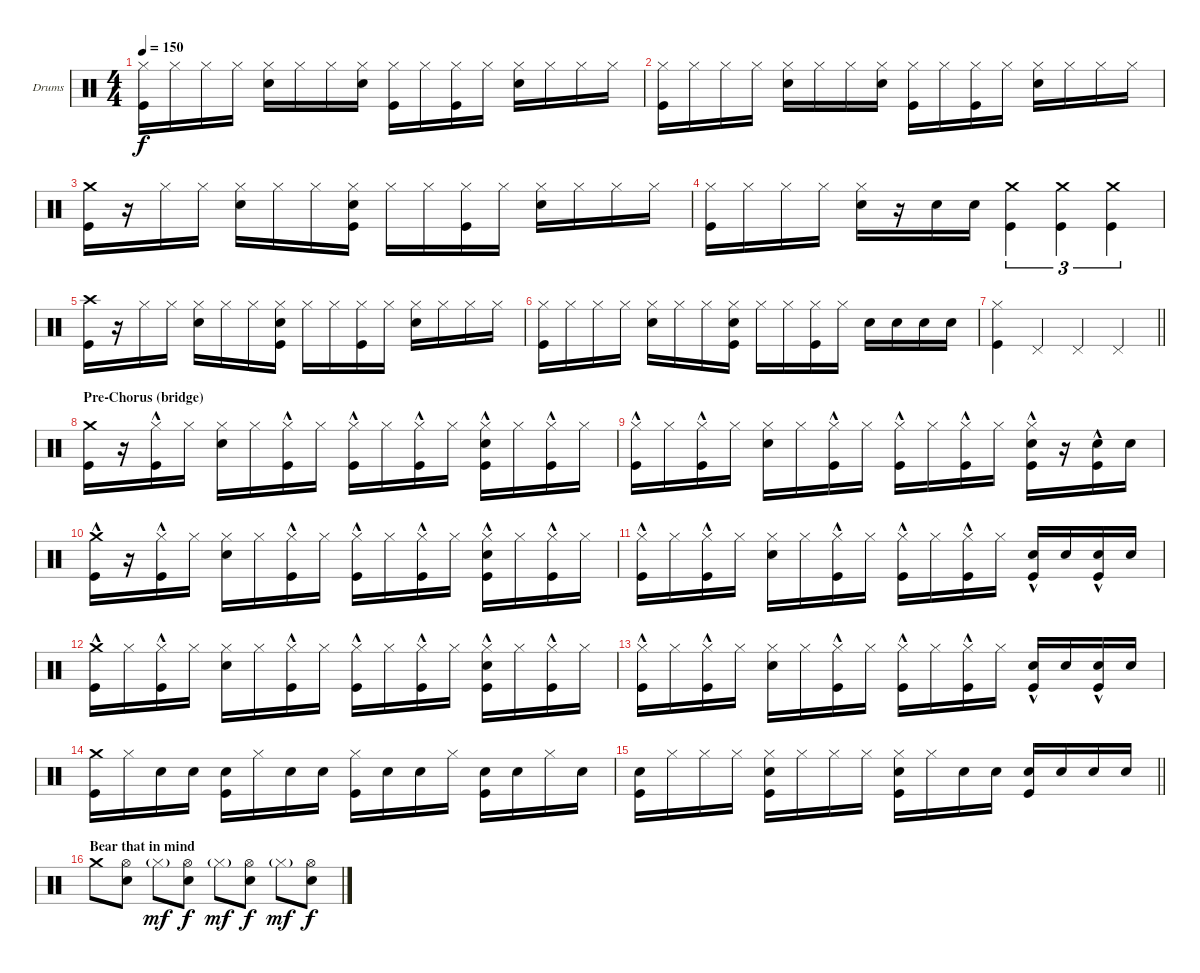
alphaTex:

\bracketExtendMode groupsimilarinstruments
\firstSystemTrackNameOrientation horizontal
\otherSystemsTrackNameOrientation horizontal
\track ("Drumkit" "Drums") {instrument percussion}
\staff {score}
\articulation defaults
\ts (4 4)
\tempo 150
\clef neutral
\ks c
("Hi-Hat (closed)" "Kick (hit)").16{dy f} "Hi-Hat (closed)".16 "Hi-Hat (closed)".16 "Hi-Hat (closed)".16 ("Hi-Hat (closed)" "Snare (hit) 2").16 "Hi-Hat (closed)".16 "Hi-Hat (closed)".16 ("Hi-Hat (closed)" "Snare (hit) 2").16 ("Hi-Hat (closed)" "Kick (hit)").16 "Hi-Hat (closed)".16 ("Hi-Hat (closed)" "Kick (hit)").16 "Hi-Hat (closed)".16 ("Hi-Hat (closed)" "Snare (hit) 2").16 "Hi-Hat (closed)".16 "Hi-Hat (closed)".16 "Hi-Hat (closed)".16 |
("Hi-Hat (closed)" "Kick (hit)").16 "Hi-Hat (closed)".16 "Hi-Hat (closed)".16 "Hi-Hat (closed)".16 ("Hi-Hat (closed)" "Snare (hit) 2").16 "Hi-Hat (closed)".16 "Hi-Hat (closed)".16 ("Hi-Hat (closed)" "Snare (hit) 2").16 ("Hi-Hat (closed)" "Kick (hit)").16 "Hi-Hat (closed)".16 ("Hi-Hat (closed)" "Kick (hit)").16 "Hi-Hat (closed)".16 ("Hi-Hat (closed)" "Snare (hit) 2").16 "Hi-Hat (closed)".16 "Hi-Hat (closed)".16 "Hi-Hat (closed)".16 |
("Crash medium (hit)" "Kick (hit)").16 r.16 "Hi-Hat (closed)".16 "Hi-Hat (closed)".16 ("Hi-Hat (closed)" "Snare (hit) 2").16 "Hi-Hat (closed)".16 "Hi-Hat (closed)".16 ("Hi-Hat (closed)" "Snare (hit) 2" "Kick (hit)").16 "Hi-Hat (closed)".16 "Hi-Hat (closed)".16 ("Hi-Hat (closed)" "Kick (hit)").16 "Hi-Hat (closed)".16 ("Hi-Hat (closed)" "Snare (hit) 2").16 "Hi-Hat (closed)".16 "Hi-Hat (closed)".16 "Hi-Hat (closed)".16 |
("Hi-Hat (closed)" "Kick (hit)").16 "Hi-Hat (closed)".16 "Hi-Hat (closed)".16 "Hi-Hat (closed)".16 ("Hi-Hat (closed)" "Snare (hit) 2").16 r.16 "Snare (hit) 2".16 "Snare (hit) 2".16 ("Kick (hit)" "Crash medium (hit)").4{tu (3 2)} ("Kick (hit)" "Crash medium (hit)").4{tu (3 2)} ("Kick (hit)" "Crash medium (hit)").4{tu (3 2)} |
("Crash high (hit)" "Kick (hit)").16 r.16 "Hi-Hat (closed)".16 "Hi-Hat (closed)".16 ("Hi-Hat (closed)" "Snare (hit) 2").16 "Hi-Hat (closed)".16 "Hi-Hat (closed)".16 ("Hi-Hat (closed)" "Snare (hit) 2" "Kick (hit)").16 "Hi-Hat (closed)".16 "Hi-Hat (closed)".16 ("Hi-Hat (closed)" "Kick (hit)").16 "Hi-Hat (closed)".16 ("Hi-Hat (closed)" "Snare (hit) 2").16 "Hi-Hat (closed)".16 "Hi-Hat (closed)".16 "Hi-Hat (closed)".16 |
("Hi-Hat (closed)" "Kick (hit)").16 "Hi-Hat (closed)".16 "Hi-Hat (closed)".16 "Hi-Hat (closed)".16 ("Hi-Hat (closed)" "Snare (hit) 2").16 "Hi-Hat (closed)".16 "Hi-Hat (closed)".16 ("Hi-Hat (closed)" "Snare (hit) 2" "Kick (hit)").16 "Hi-Hat (closed)".16 "Hi-Hat (closed)".16 ("Hi-Hat (closed)" "Kick (hit)").16 "Hi-Hat (closed)".16 "Snare (hit) 2".16 "Snare (hit) 2".16 "Snare (hit) 2".16 "Snare (hit) 2".16 |
\barLineRight lightlight
("Kick (hit)" "Hi-Hat (closed)").4 "Pedal Hi-Hat (hit)".4 "Pedal Hi-Hat (hit)".4 "Pedal Hi-Hat (hit)".4 |
\section ("" "Pre-Chorus (bridge)")
("Crash medium (hit)" "Kick (hit)").16 r.16 ("Hi-Hat (closed)" "Kick (hit)"{hac}).16 "Hi-Hat (closed)".16 ("Hi-Hat (closed)" "Snare (hit) 2").16 "Hi-Hat (closed)".16 ("Hi-Hat (closed)" "Kick (hit)"{hac}).16 "Hi-Hat (closed)".16 ("Hi-Hat (closed)" "Kick (hit)"{hac}).16 "Hi-Hat (closed)".16 ("Hi-Hat (closed)" "Kick (hit)"{hac}).16 "Hi-Hat (closed)".16 ("Hi-Hat (closed)" "Snare (hit) 2" "Kick (hit)"{hac}).16 "Hi-Hat (closed)".16 ("Hi-Hat (closed)" "Kick (hit)"{hac}).16 "Hi-Hat (closed)".16 |
("Hi-Hat (closed)" "Kick (hit)"{hac}).16 "Hi-Hat (closed)".16 ("Hi-Hat (closed)" "Kick (hit)"{hac}).16 "Hi-Hat (closed)".16 ("Hi-Hat (closed)" "Snare (hit) 2").16 "Hi-Hat (closed)".16 ("Hi-Hat (closed)" "Kick (hit)"{hac}).16 "Hi-Hat (closed)".16 ("Hi-Hat (closed)" "Kick (hit)"{hac}).16 "Hi-Hat (closed)".16 ("Hi-Hat (closed)" "Kick (hit)"{hac}).16 "Hi-Hat (closed)".16 ("Hi-Hat (closed)" "Snare (hit) 2" "Kick (hit)"{hac}).16 r.16 ("Snare (hit) 2" "Kick (hit)"{hac}).16 "Snare (hit) 2".16 |
("Crash medium (hit)" "Kick (hit)"{hac}).16 r.16 ("Hi-Hat (closed)" "Kick (hit)"{hac}).16 "Hi-Hat (closed)".16 ("Hi-Hat (closed)" "Snare (hit) 2").16 "Hi-Hat (closed)".16 ("Hi-Hat (closed)" "Kick (hit)"{hac}).16 "Hi-Hat (closed)".16 ("Hi-Hat (closed)" "Kick (hit)"{hac}).16 "Hi-Hat (closed)".16 ("Hi-Hat (closed)" "Kick (hit)"{hac}).16 "Hi-Hat (closed)".16 ("Hi-Hat (closed)" "Snare (hit) 2" "Kick (hit)"{hac}).16 "Hi-Hat (closed)".16 ("Hi-Hat (closed)" "Kick (hit)"{hac}).16 "Hi-Hat (closed)".16 |
("Hi-Hat (closed)" "Kick (hit)"{hac}).16 "Hi-Hat (closed)".16 ("Hi-Hat (closed)" "Kick (hit)"{hac}).16 "Hi-Hat (closed)".16 ("Hi-Hat (closed)" "Snare (hit) 2").16 "Hi-Hat (closed)".16 ("Hi-Hat (closed)" "Kick (hit)"{hac}).16 "Hi-Hat (closed)".16 ("Hi-Hat (closed)" "Kick (hit)"{hac}).16 "Hi-Hat (closed)".16 ("Hi-Hat (closed)" "Kick (hit)"{hac}).16 "Hi-Hat (closed)".16 ("Snare (hit) 2" "Kick (hit)"{hac}).16 "Snare (hit) 2".16 ("Snare (hit) 2" "Kick (hit)"{hac}).16 "Snare (hit) 2".16 |
("Crash medium (hit)" "Kick (hit)"{hac}).16 "Hi-Hat (closed)".16 ("Hi-Hat (closed)" "Kick (hit)"{hac}).16 "Hi-Hat (closed)".16 ("Hi-Hat (closed)" "Snare (hit) 2").16 "Hi-Hat (closed)".16 ("Hi-Hat (closed)" "Kick (hit)"{hac}).16 "Hi-Hat (closed)".16 ("Hi-Hat (closed)" "Kick (hit)"{hac}).16 "Hi-Hat (closed)".16 ("Hi-Hat (closed)" "Kick (hit)"{hac}).16 "Hi-Hat (closed)".16 ("Hi-Hat (closed)" "Snare (hit) 2" "Kick (hit)"{hac}).16 "Hi-Hat (closed)".16 ("Hi-Hat (closed)" "Kick (hit)"{hac}).16 "Hi-Hat (closed)".16 |
("Hi-Hat (closed)" "Kick (hit)"{hac}).16 "Hi-Hat (closed)".16 ("Hi-Hat (closed)" "Kick (hit)"{hac}).16 "Hi-Hat (closed)".16 ("Hi-Hat (closed)" "Snare (hit) 2").16 "Hi-Hat (closed)".16 ("Hi-Hat (closed)" "Kick (hit)"{hac}).16 "Hi-Hat (closed)".16 ("Hi-Hat (closed)" "Kick (hit)"{hac}).16 "Hi-Hat (closed)".16 ("Hi-Hat (closed)" "Kick (hit)"{hac}).16 "Hi-Hat (closed)".16 ("Snare (hit) 2" "Kick (hit)"{hac}).16 "Snare (hit) 2".16 ("Snare (hit) 2" "Kick (hit)"{hac}).16 "Snare (hit) 2".16 |
("Crash medium (hit)" "Kick (hit)").16 "Hi-Hat (closed)".16 "Snare (hit) 2".16 "Snare (hit) 2".16 ("Snare (hit) 2" "Kick (hit)").16 "Hi-Hat (closed)".16 "Snare (hit) 2".16 "Snare (hit) 2".16 ("Hi-Hat (closed)" "Kick (hit)").16 "Snare (hit) 2".16 "Snare (hit) 2".16 "Hi-Hat (closed)".16 ("Snare (hit) 2" "Kick (hit)").16 "Snare (hit) 2".16 "Hi-Hat (closed)".16 "Snare (hit) 2".16 |
\barLineRight lightlight
("Snare (hit) 2" "Kick (hit)").16 "Hi-Hat (closed)".16 "Hi-Hat (closed)".16 "Hi-Hat (closed)".16 ("Hi-Hat (closed)" "Snare (hit) 2" "Kick (hit)").16 "Hi-Hat (closed)".16 "Hi-Hat (closed)".16 "Hi-Hat (closed)".16 ("Hi-Hat (closed)" "Snare (hit) 2" "Kick (hit)").16 "Hi-Hat (closed)".16 "Snare (hit) 2".16 "Snare (hit) 2".16 ("Snare (hit) 2" "Kick (hit)").16 "Snare (hit) 2".16 "Snare (hit) 2".16 "Snare (hit) 2".16 |
\section ("" "Bear that in mind")
"Crash medium (hit)".8 ("Hi-Hat (open)" "Snare (hit) 2").8 "Hi-Hat (closed)"{g}.8{dy mf} ("Hi-Hat (open)" "Snare (hit) 2").8{dy f} "Hi-Hat (closed)"{g}.8{dy mf} ("Hi-Hat (open)" "Snare (hit) 2").8{dy f} "Hi-Hat (closed)"{g}.8{dy mf} ("Hi-Hat (open)" "Snare (hit) 2").8{dy f}
